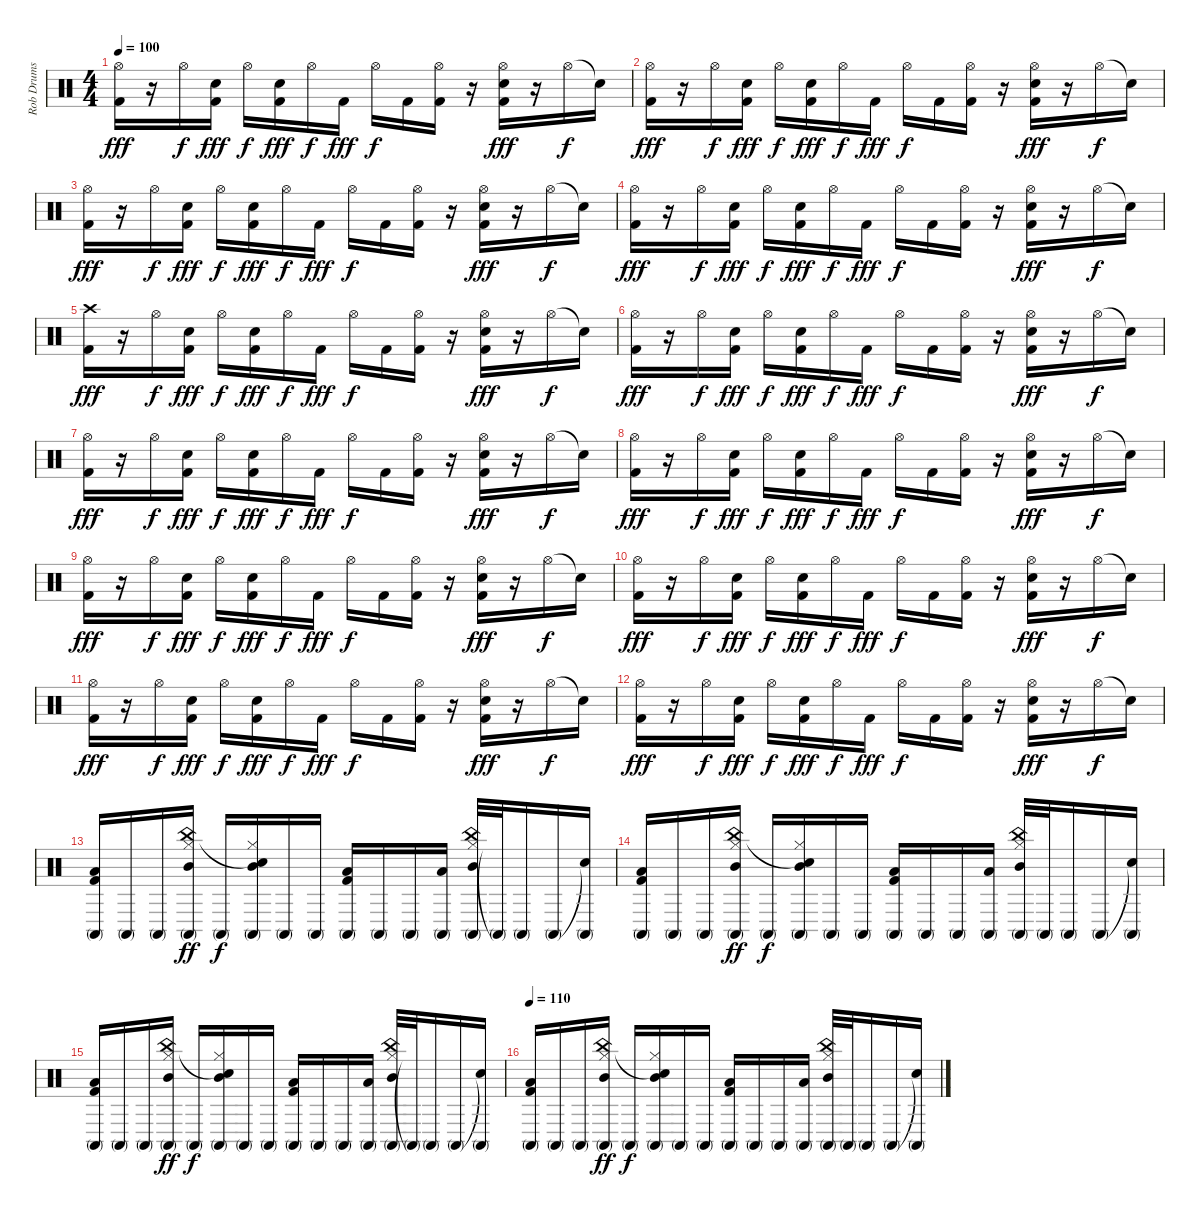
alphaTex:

\track ("Rob Drums" "Rob Drums") {instrument percussion}
\staff {score}
\articulation defaults
\ts (4 4)
\tempo 100
\clef neutral
\ks c
("Hi-Hat (open)" "Kick (hit) 2").16{dy fff} r.16 "Hi-Hat (open)".16{dy f} ("Snare (hit) 2" "Kick (hit) 2").16{dy fff} "Hi-Hat (open)".16{dy f} ("Snare (hit) 2" "Kick (hit) 2").16{dy fff} "Hi-Hat (open)".16{dy f} "Kick (hit) 2".16{dy fff} "Hi-Hat (open)".16{dy f} "Kick (hit) 2".16 ("Hi-Hat (open)" "Kick (hit) 2").16 r.16 ("Hi-Hat (open)" "Snare (hit) 2" "Kick (hit) 2").16{dy fff} r.16 "Hi-Hat (open)".16{dy f} "Snare (hit)"{t}.16 |
("Hi-Hat (open)" "Kick (hit) 2").16{dy fff} r.16 "Hi-Hat (open)".16{dy f} ("Snare (hit) 2" "Kick (hit) 2").16{dy fff} "Hi-Hat (open)".16{dy f} ("Snare (hit) 2" "Kick (hit) 2").16{dy fff} "Hi-Hat (open)".16{dy f} "Kick (hit) 2".16{dy fff} "Hi-Hat (open)".16{dy f} "Kick (hit) 2".16 ("Hi-Hat (open)" "Kick (hit) 2").16 r.16 ("Hi-Hat (open)" "Snare (hit) 2" "Kick (hit) 2").16{dy fff} r.16 "Hi-Hat (open)".16{dy f} "Snare (hit)"{t}.16 |
("Hi-Hat (open)" "Kick (hit) 2").16{dy fff} r.16 "Hi-Hat (open)".16{dy f} ("Snare (hit) 2" "Kick (hit) 2").16{dy fff} "Hi-Hat (open)".16{dy f} ("Snare (hit) 2" "Kick (hit) 2").16{dy fff} "Hi-Hat (open)".16{dy f} "Kick (hit) 2".16{dy fff} "Hi-Hat (open)".16{dy f} "Kick (hit) 2".16 ("Hi-Hat (open)" "Kick (hit) 2").16 r.16 ("Hi-Hat (open)" "Snare (hit) 2" "Kick (hit) 2").16{dy fff} r.16 "Hi-Hat (open)".16{dy f} "Snare (hit)"{t}.16 |
("Hi-Hat (open)" "Kick (hit) 2").16{dy fff} r.16 "Hi-Hat (open)".16{dy f} ("Snare (hit) 2" "Kick (hit) 2").16{dy fff} "Hi-Hat (open)".16{dy f} ("Snare (hit) 2" "Kick (hit) 2").16{dy fff} "Hi-Hat (open)".16{dy f} "Kick (hit) 2".16{dy fff} "Hi-Hat (open)".16{dy f} "Kick (hit) 2".16 ("Hi-Hat (open)" "Kick (hit) 2").16 r.16 ("Hi-Hat (open)" "Snare (hit) 2" "Kick (hit) 2").16{dy fff} r.16 "Hi-Hat (open)".16{dy f} "Snare (hit)"{t}.16 |
("Crash high (hit)" "Kick (hit) 2").16{dy fff volume 16} r.16 "Hi-Hat (open)".16{dy f} ("Snare (hit) 2" "Kick (hit) 2").16{dy fff} "Hi-Hat (open)".16{dy f} ("Snare (hit) 2" "Kick (hit) 2").16{dy fff} "Hi-Hat (open)".16{dy f} "Kick (hit) 2".16{dy fff} "Hi-Hat (open)".16{dy f} "Kick (hit) 2".16 ("Hi-Hat (open)" "Kick (hit) 2").16 r.16 ("Hi-Hat (open)" "Snare (hit) 2" "Kick (hit) 2").16{dy fff} r.16 "Hi-Hat (open)".16{dy f} "Snare (hit)"{t}.16 |
("Hi-Hat (open)" "Kick (hit) 2").16{dy fff} r.16 "Hi-Hat (open)".16{dy f} ("Snare (hit) 2" "Kick (hit) 2").16{dy fff} "Hi-Hat (open)".16{dy f} ("Snare (hit) 2" "Kick (hit) 2").16{dy fff} "Hi-Hat (open)".16{dy f} "Kick (hit) 2".16{dy fff} "Hi-Hat (open)".16{dy f} "Kick (hit) 2".16 ("Hi-Hat (open)" "Kick (hit) 2").16 r.16 ("Hi-Hat (open)" "Snare (hit) 2" "Kick (hit) 2").16{dy fff} r.16 "Hi-Hat (open)".16{dy f} "Snare (hit)"{t}.16 |
("Hi-Hat (open)" "Kick (hit) 2").16{dy fff} r.16 "Hi-Hat (open)".16{dy f} ("Snare (hit) 2" "Kick (hit) 2").16{dy fff} "Hi-Hat (open)".16{dy f} ("Snare (hit) 2" "Kick (hit) 2").16{dy fff} "Hi-Hat (open)".16{dy f} "Kick (hit) 2".16{dy fff} "Hi-Hat (open)".16{dy f} "Kick (hit) 2".16 ("Hi-Hat (open)" "Kick (hit) 2").16 r.16 ("Hi-Hat (open)" "Snare (hit) 2" "Kick (hit) 2").16{dy fff} r.16 "Hi-Hat (open)".16{dy f} "Snare (hit)"{t}.16 |
("Hi-Hat (open)" "Kick (hit) 2").16{dy fff} r.16 "Hi-Hat (open)".16{dy f} ("Snare (hit) 2" "Kick (hit) 2").16{dy fff} "Hi-Hat (open)".16{dy f} ("Snare (hit) 2" "Kick (hit) 2").16{dy fff} "Hi-Hat (open)".16{dy f} "Kick (hit) 2".16{dy fff} "Hi-Hat (open)".16{dy f} "Kick (hit) 2".16 ("Hi-Hat (open)" "Kick (hit) 2").16 r.16 ("Hi-Hat (open)" "Snare (hit) 2" "Kick (hit) 2").16{dy fff} r.16 "Hi-Hat (open)".16{dy f} "Snare (hit)"{t}.16 |
("Hi-Hat (open)" "Kick (hit) 2").16{dy fff} r.16 "Hi-Hat (open)".16{dy f} ("Snare (hit) 2" "Kick (hit) 2").16{dy fff} "Hi-Hat (open)".16{dy f} ("Snare (hit) 2" "Kick (hit) 2").16{dy fff} "Hi-Hat (open)".16{dy f} "Kick (hit) 2".16{dy fff} "Hi-Hat (open)".16{dy f} "Kick (hit) 2".16 ("Hi-Hat (open)" "Kick (hit) 2").16 r.16 ("Hi-Hat (open)" "Snare (hit) 2" "Kick (hit) 2").16{dy fff} r.16 "Hi-Hat (open)".16{dy f} "Snare (hit)"{t}.16 |
("Hi-Hat (open)" "Kick (hit) 2").16{dy fff} r.16 "Hi-Hat (open)".16{dy f} ("Snare (hit) 2" "Kick (hit) 2").16{dy fff} "Hi-Hat (open)".16{dy f} ("Snare (hit) 2" "Kick (hit) 2").16{dy fff} "Hi-Hat (open)".16{dy f} "Kick (hit) 2".16{dy fff} "Hi-Hat (open)".16{dy f} "Kick (hit) 2".16 ("Hi-Hat (open)" "Kick (hit) 2").16 r.16 ("Hi-Hat (open)" "Snare (hit) 2" "Kick (hit) 2").16{dy fff} r.16 "Hi-Hat (open)".16{dy f} "Snare (hit)"{t}.16 |
("Hi-Hat (open)" "Kick (hit) 2").16{dy fff} r.16 "Hi-Hat (open)".16{dy f} ("Snare (hit) 2" "Kick (hit) 2").16{dy fff} "Hi-Hat (open)".16{dy f} ("Snare (hit) 2" "Kick (hit) 2").16{dy fff} "Hi-Hat (open)".16{dy f} "Kick (hit) 2".16{dy fff} "Hi-Hat (open)".16{dy f} "Kick (hit) 2".16 ("Hi-Hat (open)" "Kick (hit) 2").16 r.16 ("Hi-Hat (open)" "Snare (hit) 2" "Kick (hit) 2").16{dy fff} r.16 "Hi-Hat (open)".16{dy f} "Snare (hit)"{t}.16 |
("Hi-Hat (open)" "Kick (hit) 2").16{dy fff} r.16 "Hi-Hat (open)".16{dy f} ("Snare (hit) 2" "Kick (hit) 2").16{dy fff} "Hi-Hat (open)".16{dy f} ("Snare (hit) 2" "Kick (hit) 2").16{dy fff} "Hi-Hat (open)".16{dy f} "Kick (hit) 2".16{dy fff} "Hi-Hat (open)".16{dy f} "Kick (hit) 2".16 ("Hi-Hat (open)" "Kick (hit) 2").16 r.16 ("Hi-Hat (open)" "Snare (hit) 2" "Kick (hit) 2").16{dy fff} r.16 "Hi-Hat (open)".16{dy f} "Snare (hit)"{t}.16 |
("Kick (hit) 2" "Low Tom (hit)" "Conga high (mute)").16{volume 12} "Conga high (mute)".16 "Conga high (mute)".16 ("Hi-Hat (closed)" "China (hit)" "Mid Tom (hit)" "Conga high (mute)").16{dy ff} "Conga high (mute)".16{dy f} ("Hi-Hat (closed)" "Snare (hit)"{t} "Mid Tom (hit)" "Conga high (mute)").16 "Conga high (mute)".16 "Conga high (mute)".16 ("Kick (hit) 2" "Low Tom (hit)" "Conga high (mute)").16 "Conga high (mute)".16 "Conga high (mute)".16 ("Low Tom (hit)" "Conga high (mute)").16 ("Hi-Hat (closed)" "China (hit)" "Mid Tom (hit)" "Conga high (mute)").32 "Conga high (mute)"{t}.32 "Conga high (mute)".16 "Conga high (mute)".16 ("Snare (hit)"{t} "Conga high (mute)").16 |
("Kick (hit) 2" "Low Tom (hit)" "Conga high (mute)").16{volume 12} "Conga high (mute)".16 "Conga high (mute)".16 ("Hi-Hat (closed)" "China (hit)" "Mid Tom (hit)" "Conga high (mute)").16{dy ff} "Conga high (mute)".16{dy f} ("Hi-Hat (closed)" "Snare (hit)"{t} "Mid Tom (hit)" "Conga high (mute)").16 "Conga high (mute)".16 "Conga high (mute)".16 ("Kick (hit) 2" "Low Tom (hit)" "Conga high (mute)").16 "Conga high (mute)".16 "Conga high (mute)".16 ("Low Tom (hit)" "Conga high (mute)").16 ("Hi-Hat (closed)" "China (hit)" "Mid Tom (hit)" "Conga high (mute)").32 "Conga high (mute)".32 "Conga high (mute)".16 "Conga high (mute)".16 ("Snare (hit)"{t} "Conga high (mute)").16 |
("Kick (hit) 2" "Low Tom (hit)" "Conga high (mute)").16{volume 12} "Conga high (mute)".16 "Conga high (mute)".16 ("Hi-Hat (closed)" "China (hit)" "Mid Tom (hit)" "Conga high (mute)").16{dy ff} "Conga high (mute)".16{dy f} ("Hi-Hat (closed)" "Snare (hit)"{t} "Mid Tom (hit)" "Conga high (mute)").16 "Conga high (mute)".16 "Conga high (mute)".16 ("Kick (hit) 2" "Low Tom (hit)" "Conga high (mute)").16 "Conga high (mute)".16 "Conga high (mute)".16 ("Low Tom (hit)" "Conga high (mute)").16 ("Hi-Hat (closed)" "China (hit)" "Mid Tom (hit)" "Conga high (mute)").32 "Conga high (mute)"{t}.32 "Conga high (mute)".16 "Conga high (mute)".16 ("Snare (hit)"{t} "Conga high (mute)").16 |
\tempo 110
("Kick (hit) 2" "Low Tom (hit)" "Conga high (mute)").16{volume 12} "Conga high (mute)".16 "Conga high (mute)".16 ("Hi-Hat (closed)" "China (hit)" "Mid Tom (hit)" "Conga high (mute)").16{dy ff} "Conga high (mute)".16{dy f} ("Hi-Hat (closed)" "Snare (hit)"{t} "Mid Tom (hit)" "Conga high (mute)").16 "Conga high (mute)".16 "Conga high (mute)".16 ("Kick (hit) 2" "Low Tom (hit)" "Conga high (mute)").16 "Conga high (mute)".16 "Conga high (mute)".16 ("Low Tom (hit)" "Conga high (mute)").16 ("Hi-Hat (closed)" "China (hit)" "Mid Tom (hit)" "Conga high (mute)").32 "Conga high (mute)".32 "Conga high (mute)".16 "Conga high (mute)".16 ("Snare (hit)"{t} "Conga high (mute)").16
